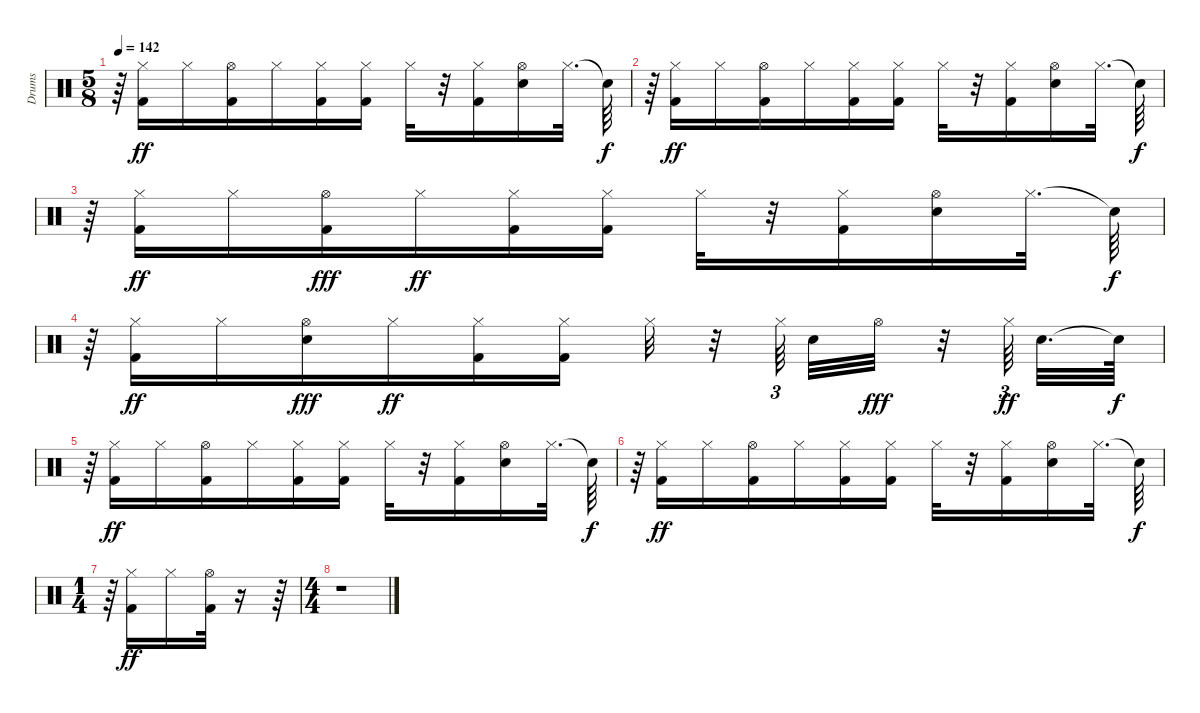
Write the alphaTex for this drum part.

\track ("Drums                               " "Drums     ") {instrument percussion}
\staff {score}
\articulation defaults
\ts (5 8)
\tempo 142
\clef neutral
\ks c
r.64{dy ff} ("Kick (hit) 2" "Hi-Hat (closed)").16 "Hi-Hat (closed)".16 ("Hi-Hat (open)" "Kick (hit) 2").16 "Hi-Hat (closed)".16 ("Hi-Hat (closed)" "Kick (hit) 2").16 ("Kick (hit) 2" "Hi-Hat (closed)").16 "Hi-Hat (closed)".32 r.32 ("Kick (hit) 2" "Hi-Hat (closed)").16 ("Snare (hit) 2" "Hi-Hat (open)").16 "Hi-Hat (closed)".32{d} "Snare (hit)"{t}.64{dy f} |
r.64 ("Hi-Hat (closed)" "Kick (hit) 2").16{dy ff} "Hi-Hat (closed)".16 ("Hi-Hat (open)" "Kick (hit) 2").16 "Hi-Hat (closed)".16 ("Kick (hit) 2" "Hi-Hat (closed)").16 ("Kick (hit) 2" "Hi-Hat (closed)").16 "Hi-Hat (closed)".32 r.32 ("Kick (hit) 2" "Hi-Hat (closed)").16 ("Hi-Hat (open)" "Snare (hit) 2").16 "Hi-Hat (closed)".32{d} "Snare (hit)"{t}.64{dy f} |
r.64 ("Hi-Hat (closed)" "Kick (hit) 2").16{dy ff} "Hi-Hat (closed)".16 ("Kick (hit) 2" "Hi-Hat (open)").16{dy fff} "Hi-Hat (closed)".16{dy ff} ("Hi-Hat (closed)" "Kick (hit) 2").16 ("Kick (hit) 2" "Hi-Hat (closed)").16 "Hi-Hat (closed)".32 r.32 ("Kick (hit) 2" "Hi-Hat (closed)").16 ("Hi-Hat (open)" "Snare (hit) 2").16 "Hi-Hat (closed)".32{d} "Snare (hit)"{t}.64{dy f} |
r.64 ("Kick (hit) 2" "Hi-Hat (closed)").16{dy ff} "Hi-Hat (closed)".16 ("Snare (hit) 2" "Hi-Hat (open)").16{dy fff} "Hi-Hat (closed)".16{dy ff} ("Hi-Hat (closed)" "Kick (hit) 2").16 ("Kick (hit) 2" "Hi-Hat (closed)").16 "Hi-Hat (closed)".32 r.32 "Hi-Hat (closed)".64{tu (3 2)} "Snare (hit) 2".32 "Hi-Hat (open)".32{dy fff} r.32 "Hi-Hat (closed)".64{tu (3 2) dy ff} "Snare (hit) 2".32{d} "Snare (hit)"{t}.64{dy f} |
r.64 ("Kick (hit) 2" "Hi-Hat (closed)").16{dy ff} "Hi-Hat (closed)".16 ("Kick (hit) 2" "Hi-Hat (open)").16 "Hi-Hat (closed)".16 ("Hi-Hat (closed)" "Kick (hit) 2").16 ("Kick (hit) 2" "Hi-Hat (closed)").16 "Hi-Hat (closed)".32 r.32 ("Kick (hit) 2" "Hi-Hat (closed)").16 ("Hi-Hat (open)" "Snare (hit) 2").16 "Hi-Hat (closed)".32{d} "Snare (hit)"{t}.64{dy f} |
r.64 ("Hi-Hat (closed)" "Kick (hit) 2").16{dy ff} "Hi-Hat (closed)".16 ("Hi-Hat (open)" "Kick (hit) 2").16 "Hi-Hat (closed)".16 ("Hi-Hat (closed)" "Kick (hit) 2").16 ("Kick (hit) 2" "Hi-Hat (closed)").16 "Hi-Hat (closed)".32 r.32 ("Kick (hit) 2" "Hi-Hat (closed)").16 ("Snare (hit) 2" "Hi-Hat (open)").16 "Hi-Hat (closed)".32{d} "Snare (hit)"{t}.64{dy f} |
\ts (1 4)
r.64 ("Kick (hit) 2" "Hi-Hat (closed)").16{dy ff} "Hi-Hat (closed)".16 ("Hi-Hat (open)" "Kick (hit) 2").32 r.16 r.64 |
\ts (4 4)
r.1
